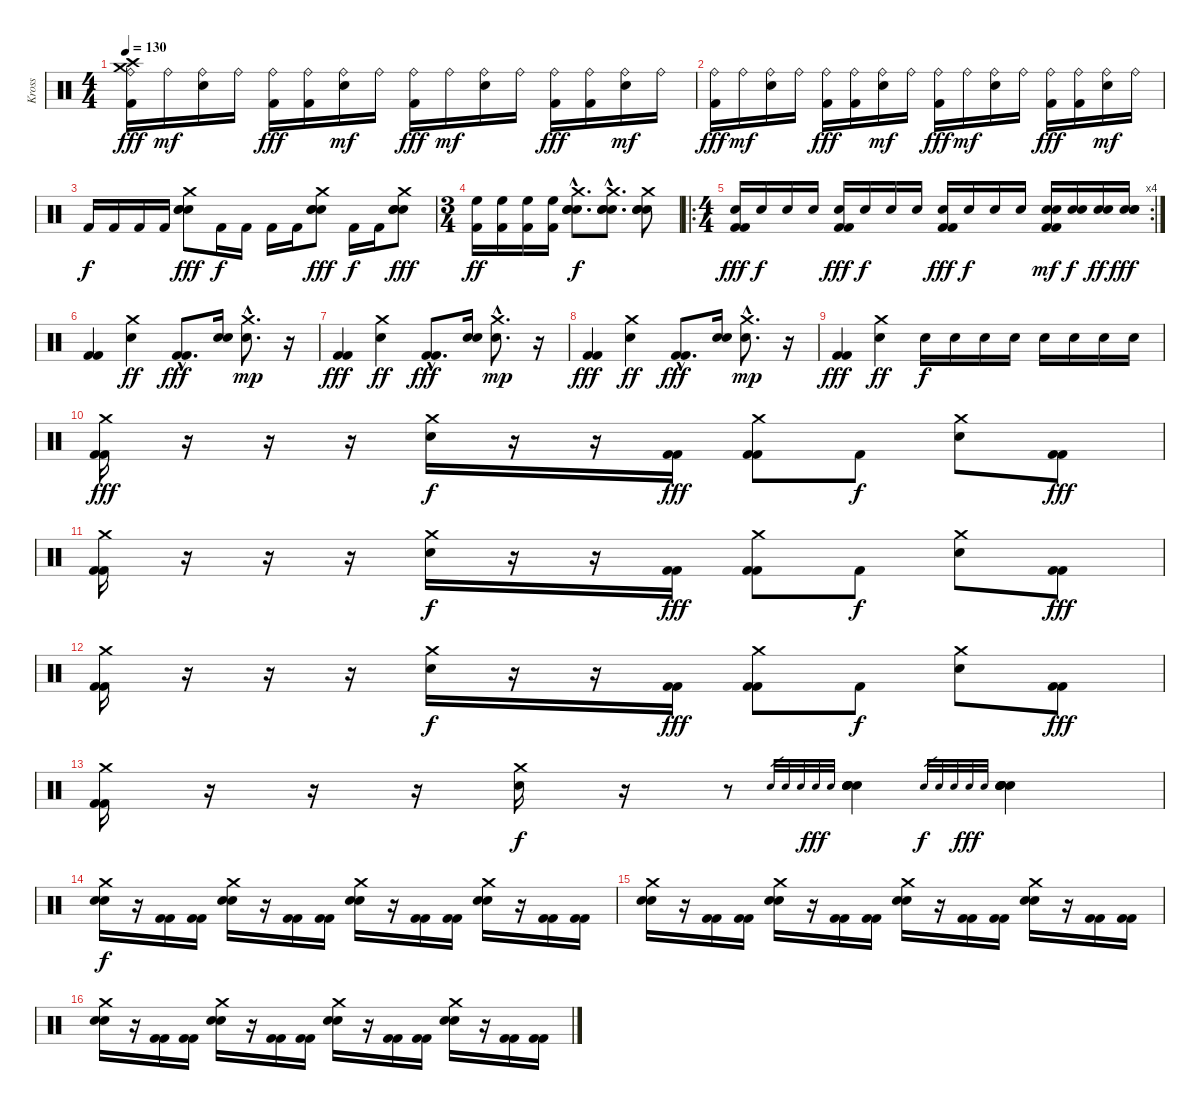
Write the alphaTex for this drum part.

\track ("Kross" "Kross") {instrument percussion}
\staff {score}
\articulation defaults
\ts (4 4)
\tempo 130
\clef neutral
\ks c
("Crash high (hit)" "Crash medium (hit)" "Ride (bell)" "Kick (hit) 2").16{dy fff} "Ride (bell)".16{dy mf} ("Ride (bell)" "Electric Snare (hit)").16 "Ride (bell)".16 ("Ride (bell)" "Kick (hit) 2").16{dy fff} ("Ride (bell)" "Kick (hit) 2").16 ("Ride (bell)" "Electric Snare (hit)").16{dy mf} "Ride (bell)".16 ("Ride (bell)" "Kick (hit) 2").16{dy fff} "Ride (bell)".16{dy mf} ("Ride (bell)" "Electric Snare (hit)").16 "Ride (bell)".16 ("Ride (bell)" "Kick (hit) 2").16{dy fff} ("Ride (bell)" "Kick (hit) 2").16 ("Ride (bell)" "Electric Snare (hit)").16{dy mf} "Ride (bell)".16 |
("Ride (bell)" "Kick (hit) 2").16{dy fff} "Ride (bell)".16{dy mf} ("Ride (bell)" "Electric Snare (hit)").16 "Ride (bell)".16 ("Ride (bell)" "Kick (hit) 2").16{dy fff} ("Ride (bell)" "Kick (hit) 2").16 ("Ride (bell)" "Electric Snare (hit)").16{dy mf} "Ride (bell)".16 ("Ride (bell)" "Kick (hit) 2").16{dy fff} "Ride (bell)".16{dy mf} ("Ride (bell)" "Electric Snare (hit)").16 "Ride (bell)".16 ("Ride (bell)" "Kick (hit) 2").16{dy fff} ("Ride (bell)" "Kick (hit) 2").16 ("Ride (bell)" "Electric Snare (hit)").16{dy mf} "Ride (bell)".16 |
"Kick (hit) 2".16{dy f} "Kick (hit) 2".16 "Kick (hit) 2".16 "Kick (hit) 2".16 ("Crash medium (hit)" "Electric Snare (hit)" "Electric Snare (hit)" "Electric Snare (hit)").8{dy fff} "Kick (hit) 2".16{dy f} "Kick (hit) 2".16 "Kick (hit) 2".16 "Kick (hit) 2".16 ("Crash medium (hit)" "Electric Snare (hit)" "Electric Snare (hit)" "Electric Snare (hit)").8{dy fff} "Kick (hit) 2".16{dy f} "Kick (hit) 2".16 ("Crash medium (hit)" "Electric Snare (hit)" "Electric Snare (hit)" "Electric Snare (hit)").8{dy fff} |
\ts (3 4)
("High Floor Tom (hit)" "Kick (hit) 2").16{dy ff} ("High Floor Tom (hit)" "Kick (hit) 2").16 ("High Floor Tom (hit)" "Kick (hit) 2").16 ("High Floor Tom (hit)" "Kick (hit) 2").16 ("Crash medium (hit)"{hac} "Electric Snare (hit)"{hac} "Electric Snare (hit)"{hac} "Electric Snare (hit)"{hac}).8{d dy f} ("Crash medium (hit)"{hac} "Electric Snare (hit)"{hac} "Electric Snare (hit)"{hac} "Electric Snare (hit)"{hac}).8{d} ("Crash medium (hit)" "Electric Snare (hit)" "Electric Snare (hit)" "Electric Snare (hit)").8 |
\ro
\rc 4
\ts (4 4)
("Kick (hit) 2" "Kick (hit) 2" "Electric Snare (hit)").16{dy fff} "Electric Snare (hit)".16{dy f} "Electric Snare (hit)".16 "Electric Snare (hit)".16 ("Kick (hit) 2" "Kick (hit) 2" "Electric Snare (hit)").16{dy fff} "Electric Snare (hit)".16{dy f} "Electric Snare (hit)".16 "Electric Snare (hit)".16 ("Kick (hit) 2" "Kick (hit) 2" "Electric Snare (hit)").16{dy fff} "Electric Snare (hit)".16{dy f} "Electric Snare (hit)".16 "Electric Snare (hit)".16 ("Kick (hit) 2" "Kick (hit) 2" "Electric Snare (hit)" "Electric Snare (hit)").16{dy mf} ("Electric Snare (hit)" "Electric Snare (hit)").16{dy f} ("Electric Snare (hit)" "Electric Snare (hit)").16{dy ff} ("Electric Snare (hit)" "Electric Snare (hit)" "Electric Snare (hit)").16{dy fff} |
("Kick (hit) 2" "Kick (hit) 2").4 ("Crash medium (hit)" "Electric Snare (hit)").4{dy ff} ("Kick (hit) 2"{hac} "Kick (hit) 2"{hac}).8{d dy fff} ("Electric Snare (hit)" "Electric Snare (hit)").16 ("Crash medium (hit)"{hac} "Electric Snare (hit)"{hac}).8{d dy mp} r.16 |
("Kick (hit) 2" "Kick (hit) 2").4{dy fff} ("Crash medium (hit)" "Electric Snare (hit)").4{dy ff} ("Kick (hit) 2"{hac} "Kick (hit) 2"{hac}).8{d dy fff} ("Electric Snare (hit)" "Electric Snare (hit)").16 ("Crash medium (hit)"{hac} "Electric Snare (hit)"{hac}).8{d dy mp} r.16 |
("Kick (hit) 2" "Kick (hit) 2").4{dy fff} ("Crash medium (hit)" "Electric Snare (hit)").4{dy ff} ("Kick (hit) 2"{hac} "Kick (hit) 2"{hac}).8{d dy fff} ("Electric Snare (hit)" "Electric Snare (hit)").16 ("Crash medium (hit)"{hac} "Electric Snare (hit)"{hac}).8{d dy mp} r.16 |
("Kick (hit) 2" "Kick (hit) 2").4{dy fff} ("Crash medium (hit)" "Electric Snare (hit)").4{dy ff} "Electric Snare (hit)".16{dy f} "Electric Snare (hit)".16 "Electric Snare (hit)".16 "Electric Snare (hit)".16 "Electric Snare (hit)".16 "Electric Snare (hit)".16 "Electric Snare (hit)".16 "Electric Snare (hit)".16 |
("Crash medium (hit)" "Kick (hit) 2" "Kick (hit) 2").16{dy fff} r.16 r.16 r.16 ("Crash medium (hit)" "Electric Snare (hit)").16{dy f} r.16 r.16 ("Kick (hit) 2" "Kick (hit) 2").16{dy fff} ("Crash medium (hit)" "Kick (hit) 2" "Kick (hit) 2").8 "Kick (hit) 2".8{dy f} ("Crash medium (hit)" "Electric Snare (hit)").8 ("Kick (hit) 2" "Kick (hit) 2").8{dy fff} |
("Crash medium (hit)" "Kick (hit) 2" "Kick (hit) 2").16 r.16 r.16 r.16 ("Crash medium (hit)" "Electric Snare (hit)").16{dy f} r.16 r.16 ("Kick (hit) 2" "Kick (hit) 2").16{dy fff} ("Crash medium (hit)" "Kick (hit) 2" "Kick (hit) 2").8 "Kick (hit) 2".8{dy f} ("Crash medium (hit)" "Electric Snare (hit)").8 ("Kick (hit) 2" "Kick (hit) 2").8{dy fff} |
("Crash medium (hit)" "Kick (hit) 2" "Kick (hit) 2").16 r.16 r.16 r.16 ("Crash medium (hit)" "Electric Snare (hit)").16{dy f} r.16 r.16 ("Kick (hit) 2" "Kick (hit) 2").16{dy fff} ("Crash medium (hit)" "Kick (hit) 2" "Kick (hit) 2").8 "Kick (hit) 2".8{dy f} ("Crash medium (hit)" "Electric Snare (hit)").8 ("Kick (hit) 2" "Kick (hit) 2").8{dy fff} |
("Crash medium (hit)" "Kick (hit) 2" "Kick (hit) 2").16 r.16 r.16 r.16 ("Crash medium (hit)" "Electric Snare (hit)").16{dy f} r.16 r.8 "Electric Snare (hit)".32{gr} "Electric Snare (hit)".32{gr} "Electric Snare (hit)".32{gr} "Electric Snare (hit)".32{gr dy fff} "Electric Snare (hit)".32{gr} ("Electric Snare (hit)" "Electric Snare (hit)" "Electric Snare (hit)" "Electric Snare (hit)" "Electric Snare (hit)").4 "Snare (hit) 2".32{gr dy f} "Snare (hit) 2".32{gr} "Snare (hit) 2".32{gr} "Snare (hit) 2".32{gr dy fff} "Snare (hit) 2".32{gr} ("Electric Snare (hit)" "Electric Snare (hit)" "Electric Snare (hit)" "Electric Snare (hit)" "Electric Snare (hit)").4 |
("Crash medium (hit)" "Electric Snare (hit)" "Electric Snare (hit)").16{dy f} r.16 ("Kick (hit) 2" "Kick (hit) 2").16 ("Kick (hit) 2" "Kick (hit) 2").16 ("Crash medium (hit)" "Electric Snare (hit)" "Electric Snare (hit)").16 r.16 ("Kick (hit) 2" "Kick (hit) 2").16 ("Kick (hit) 2" "Kick (hit) 2").16 ("Crash medium (hit)" "Electric Snare (hit)" "Electric Snare (hit)").16 r.16 ("Kick (hit) 2" "Kick (hit) 2").16 ("Kick (hit) 2" "Kick (hit) 2").16 ("Crash medium (hit)" "Electric Snare (hit)" "Electric Snare (hit)").16 r.16 ("Kick (hit) 2" "Kick (hit) 2").16 ("Kick (hit) 2" "Kick (hit) 2").16 |
("Crash medium (hit)" "Electric Snare (hit)" "Electric Snare (hit)").16 r.16 ("Kick (hit) 2" "Kick (hit) 2").16 ("Kick (hit) 2" "Kick (hit) 2").16 ("Crash medium (hit)" "Electric Snare (hit)" "Electric Snare (hit)").16 r.16 ("Kick (hit) 2" "Kick (hit) 2").16 ("Kick (hit) 2" "Kick (hit) 2").16 ("Crash medium (hit)" "Electric Snare (hit)" "Electric Snare (hit)").16 r.16 ("Kick (hit) 2" "Kick (hit) 2").16 ("Kick (hit) 2" "Kick (hit) 2").16 ("Crash medium (hit)" "Electric Snare (hit)" "Electric Snare (hit)").16 r.16 ("Kick (hit) 2" "Kick (hit) 2").16 ("Kick (hit) 2" "Kick (hit) 2").16 |
("Crash medium (hit)" "Electric Snare (hit)" "Electric Snare (hit)").16 r.16 ("Kick (hit) 2" "Kick (hit) 2").16 ("Kick (hit) 2" "Kick (hit) 2").16 ("Crash medium (hit)" "Electric Snare (hit)" "Electric Snare (hit)").16 r.16 ("Kick (hit) 2" "Kick (hit) 2").16 ("Kick (hit) 2" "Kick (hit) 2").16 ("Crash medium (hit)" "Electric Snare (hit)" "Electric Snare (hit)").16 r.16 ("Kick (hit) 2" "Kick (hit) 2").16 ("Kick (hit) 2" "Kick (hit) 2").16 ("Crash medium (hit)" "Electric Snare (hit)" "Electric Snare (hit)").16 r.16 ("Kick (hit) 2" "Kick (hit) 2").16 ("Kick (hit) 2" "Kick (hit) 2").16
